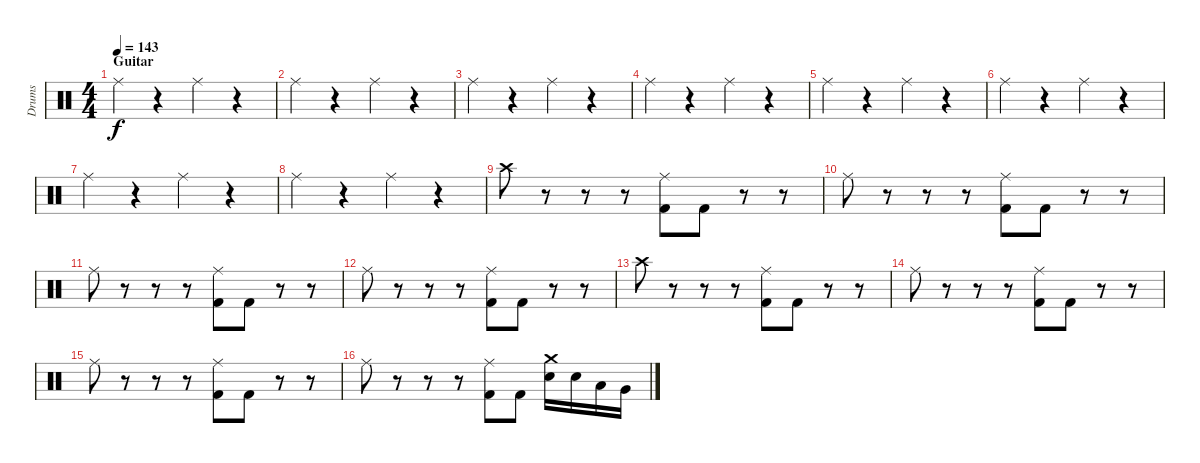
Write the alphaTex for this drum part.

\track ("Drums" "Drums") {instrument percussion}
\staff {score}
\articulation defaults
\ts (4 4)
\section ("" "Guitar")
\tempo 143
\clef neutral
\ks c "Ride (middle)".4{dy f volume 10}
r.4 "Ride (middle)".4 r.4 |
"Ride (middle)".4 r.4 "Ride (middle)".4 r.4 |
"Ride (middle)".4 r.4 "Ride (middle)".4 r.4 |
"Ride (middle)".4 r.4 "Ride (middle)".4 r.4 |
"Ride (middle)".4 r.4 "Ride (middle)".4 r.4 |
"Ride (middle)".4 r.4 "Ride (middle)".4 r.4 |
"Ride (middle)".4 r.4 "Ride (middle)".4 r.4 |
"Ride (middle)".4 r.4 "Ride (middle)".4 r.4 |
"Crash high (hit)".8{volume 16} r.8 r.8 r.8 ("Ride (middle)" "Kick (hit) 2").8 "Kick (hit) 2".8 r.8 r.8 |
"Ride (middle)".8 r.8 r.8 r.8 ("Ride (middle)" "Kick (hit) 2").8 "Kick (hit) 2".8 r.8 r.8 |
"Ride (middle)".8 r.8 r.8 r.8 ("Ride (middle)" "Kick (hit) 2").8 "Kick (hit) 2".8 r.8 r.8 |
"Ride (middle)".8 r.8 r.8 r.8 ("Ride (middle)" "Kick (hit) 2").8 "Kick (hit) 2".8 r.8 r.8 |
"Crash high (hit)".8{volume 16} r.8 r.8 r.8 ("Ride (middle)" "Kick (hit) 2").8 "Kick (hit) 2".8 r.8 r.8 |
"Ride (middle)".8 r.8 r.8 r.8 ("Ride (middle)" "Kick (hit) 2").8 "Kick (hit) 2".8 r.8 r.8 |
"Ride (middle)".8 r.8 r.8 r.8 ("Ride (middle)" "Kick (hit) 2").8 "Kick (hit) 2".8 r.8 r.8 |
"Ride (middle)".8 r.8 r.8 r.8 ("Ride (middle)" "Kick (hit) 2").8 "Kick (hit) 2".8 ("Crash medium (hit)" "Electric Snare (hit)").16 "Electric Snare (hit)".16 "Low Tom (hit)".16 "Very Low Tom (hit)".16
